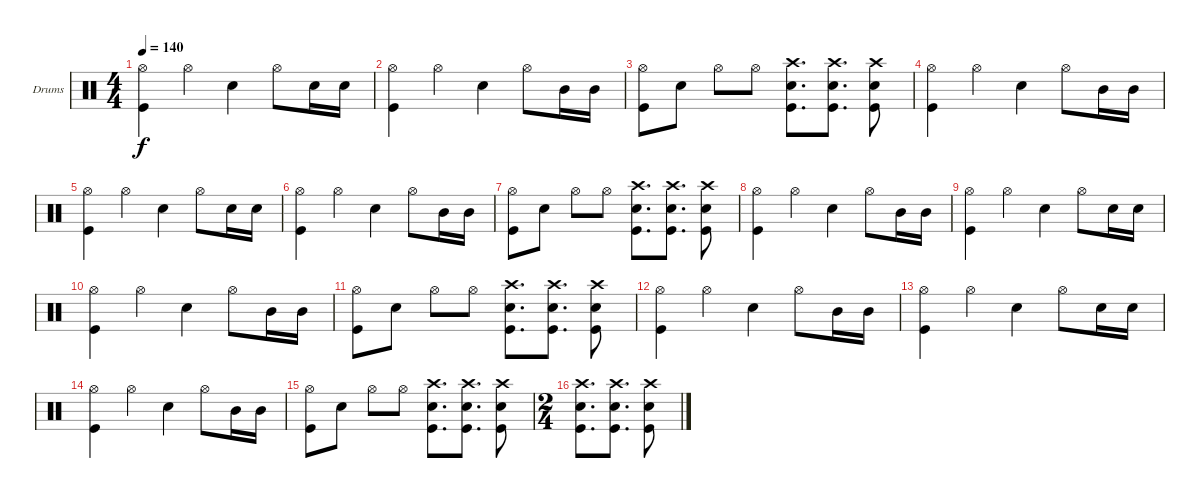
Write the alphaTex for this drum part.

\bracketExtendMode groupsimilarinstruments
\firstSystemTrackNameOrientation horizontal
\otherSystemsTrackNameOrientation horizontal
\track ("Batterie - Anders Johansson" "Drums") {instrument percussion}
\staff {score}
\articulation defaults
\ts (4 4)
\tempo 140
\clef neutral
\ks c
("Hi-Hat (open)" "Kick (hit)").4{dy f} "Hi-Hat (open)".4 "Snare (hit) 2".4 "Hi-Hat (open)".8 "Snare (hit) 2".16 "Snare (hit) 2".16 |
("Hi-Hat (open)" "Kick (hit)").4 "Hi-Hat (open)".4 "Snare (hit) 2".4 "Hi-Hat (open)".8 "Mid Tom (hit)".16 "Mid Tom (hit)".16 |
("Hi-Hat (open)" "Kick (hit)").8 "Snare (hit) 2".8 "Hi-Hat (open)".8 "Hi-Hat (open)".8 ("Crash high (hit)" "Snare (hit) 2" "Kick (hit)").8{d} ("Crash high (hit)" "Snare (hit) 2" "Kick (hit)").8{d} ("Crash high (hit)" "Snare (hit) 2" "Kick (hit)").8 |
("Hi-Hat (open)" "Kick (hit)").4 "Hi-Hat (open)".4 "Snare (hit) 2".4 "Hi-Hat (open)".8 "Mid Tom (hit)".16 "Mid Tom (hit)".16 |
("Hi-Hat (open)" "Kick (hit)").4 "Hi-Hat (open)".4 "Snare (hit) 2".4 "Hi-Hat (open)".8 "Snare (hit) 2".16 "Snare (hit) 2".16 |
("Hi-Hat (open)" "Kick (hit)").4 "Hi-Hat (open)".4 "Snare (hit) 2".4 "Hi-Hat (open)".8 "Mid Tom (hit)".16 "Mid Tom (hit)".16 |
("Hi-Hat (open)" "Kick (hit)").8 "Snare (hit) 2".8 "Hi-Hat (open)".8 "Hi-Hat (open)".8 ("Crash high (hit)" "Snare (hit) 2" "Kick (hit)").8{d} ("Crash high (hit)" "Snare (hit) 2" "Kick (hit)").8{d} ("Crash high (hit)" "Snare (hit) 2" "Kick (hit)").8 |
("Hi-Hat (open)" "Kick (hit)").4 "Hi-Hat (open)".4 "Snare (hit) 2".4 "Hi-Hat (open)".8 "Mid Tom (hit)".16 "Mid Tom (hit)".16 |
("Hi-Hat (open)" "Kick (hit)").4 "Hi-Hat (open)".4 "Snare (hit) 2".4 "Hi-Hat (open)".8 "Snare (hit) 2".16 "Snare (hit) 2".16 |
("Hi-Hat (open)" "Kick (hit)").4 "Hi-Hat (open)".4 "Snare (hit) 2".4 "Hi-Hat (open)".8 "Mid Tom (hit)".16 "Mid Tom (hit)".16 |
("Hi-Hat (open)" "Kick (hit)").8 "Snare (hit) 2".8 "Hi-Hat (open)".8 "Hi-Hat (open)".8 ("Crash high (hit)" "Snare (hit) 2" "Kick (hit)").8{d} ("Crash high (hit)" "Snare (hit) 2" "Kick (hit)").8{d} ("Crash high (hit)" "Snare (hit) 2" "Kick (hit)").8 |
("Hi-Hat (open)" "Kick (hit)").4 "Hi-Hat (open)".4 "Snare (hit) 2".4 "Hi-Hat (open)".8 "Mid Tom (hit)".16 "Mid Tom (hit)".16 |
("Hi-Hat (open)" "Kick (hit)").4 "Hi-Hat (open)".4 "Snare (hit) 2".4 "Hi-Hat (open)".8 "Snare (hit) 2".16 "Snare (hit) 2".16 |
("Hi-Hat (open)" "Kick (hit)").4 "Hi-Hat (open)".4 "Snare (hit) 2".4 "Hi-Hat (open)".8 "Mid Tom (hit)".16 "Mid Tom (hit)".16 |
("Hi-Hat (open)" "Kick (hit)").8 "Snare (hit) 2".8 "Hi-Hat (open)".8 "Hi-Hat (open)".8 ("Crash high (hit)" "Snare (hit) 2" "Kick (hit)").8{d} ("Crash high (hit)" "Snare (hit) 2" "Kick (hit)").8{d} ("Crash high (hit)" "Snare (hit) 2" "Kick (hit)").8 |
\ts (2 4)
\beaming (8 2 2)
("Crash high (hit)" "Snare (hit) 2" "Kick (hit)").8{d} ("Crash high (hit)" "Snare (hit) 2" "Kick (hit)").8{d} ("Crash high (hit)" "Snare (hit) 2" "Kick (hit)").8
